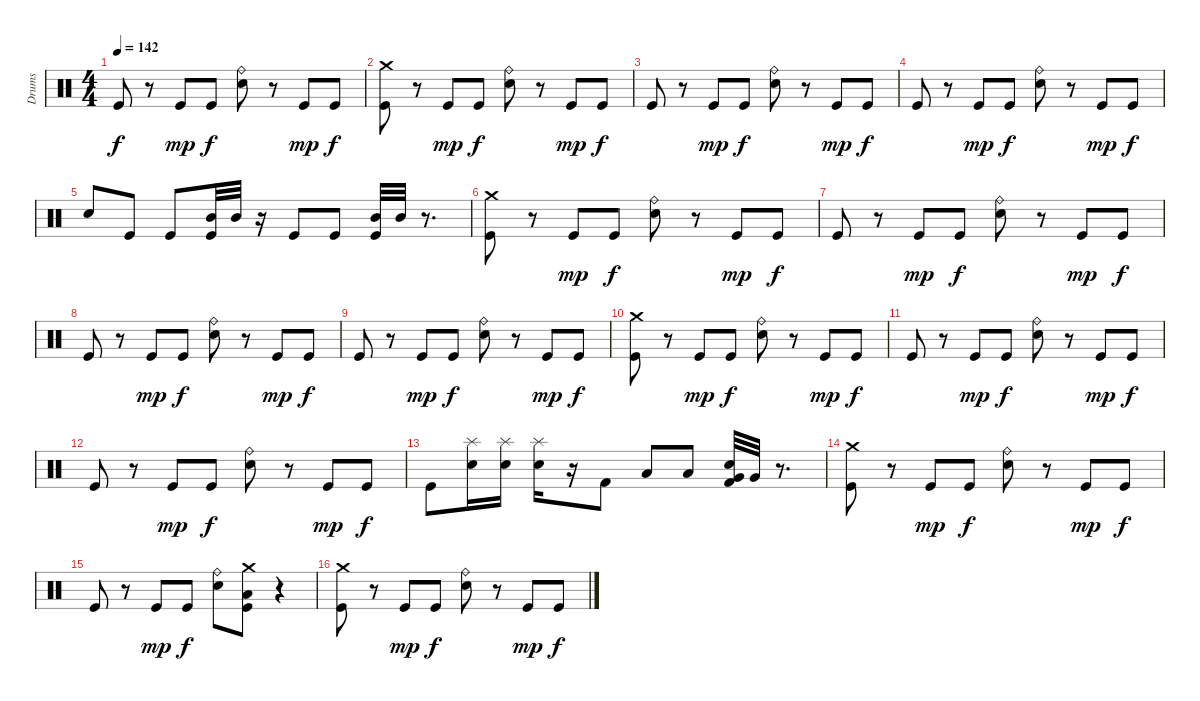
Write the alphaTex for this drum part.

\track ("Drums" "Drums") {instrument percussion}
\staff {score}
\articulation defaults
\ts (4 4)
\tempo 142
\clef neutral
\ks c "Kick (hit)".8{dy f}
r.8 "Kick (hit)".8{dy mp} "Kick (hit)".8{dy f} ("Ride (bell)" "Electric Snare (hit)").8 r.8 "Kick (hit)".8{dy mp} "Kick (hit)".8{dy f} |
("Crash medium (hit)" "Kick (hit)").8 r.8 "Kick (hit)".8{dy mp} "Kick (hit)".8{dy f} ("Ride (bell)" "Electric Snare (hit)").8 r.8 "Kick (hit)".8{dy mp} "Kick (hit)".8{dy f} |
"Kick (hit)".8 r.8 "Kick (hit)".8{dy mp} "Kick (hit)".8{dy f} ("Ride (bell)" "Electric Snare (hit)").8 r.8 "Kick (hit)".8{dy mp} "Kick (hit)".8{dy f} |
"Kick (hit)".8 r.8 "Kick (hit)".8{dy mp} "Kick (hit)".8{dy f} ("Ride (bell)" "Electric Snare (hit)").8 r.8 "Kick (hit)".8{dy mp} "Kick (hit)".8{dy f} |
"Electric Snare (hit)".8 "Kick (hit)".8 "Kick (hit)".8 ("Kick (hit)" "Mid Tom (hit)").32 "Mid Tom (hit)".32 r.16 "Kick (hit)".8 "Kick (hit)".8 ("Kick (hit)" "Mid Tom (hit)").32 "Mid Tom (hit)".32 r.8{d} |
("Crash medium (hit)" "Kick (hit)").8 r.8 "Kick (hit)".8{dy mp} "Kick (hit)".8{dy f} ("Ride (bell)" "Electric Snare (hit)").8 r.8 "Kick (hit)".8{dy mp} "Kick (hit)".8{dy f} |
"Kick (hit)".8 r.8 "Kick (hit)".8{dy mp} "Kick (hit)".8{dy f} ("Ride (bell)" "Electric Snare (hit)").8 r.8 "Kick (hit)".8{dy mp} "Kick (hit)".8{dy f} |
"Kick (hit)".8 r.8 "Kick (hit)".8{dy mp} "Kick (hit)".8{dy f} ("Ride (bell)" "Electric Snare (hit)").8 r.8 "Kick (hit)".8{dy mp} "Kick (hit)".8{dy f} |
"Kick (hit)".8 r.8 "Kick (hit)".8{dy mp} "Kick (hit)".8{dy f} ("Ride (bell)" "Electric Snare (hit)").8 r.8 "Kick (hit)".8{dy mp} "Kick (hit)".8{dy f} |
("Crash medium (hit)" "Kick (hit)").8 r.8 "Kick (hit)".8{dy mp} "Kick (hit)".8{dy f} ("Ride (bell)" "Electric Snare (hit)").8 r.8 "Kick (hit)".8{dy mp} "Kick (hit)".8{dy f} |
"Kick (hit)".8 r.8 "Kick (hit)".8{dy mp} "Kick (hit)".8{dy f} ("Ride (bell)" "Electric Snare (hit)").8 r.8 "Kick (hit)".8{dy mp} "Kick (hit)".8{dy f} |
"Kick (hit)".8 r.8 "Kick (hit)".8{dy mp} "Kick (hit)".8{dy f} ("Ride (bell)" "Electric Snare (hit)").8 r.8 "Kick (hit)".8{dy mp} "Kick (hit)".8{dy f} |
"Kick (hit)".8 ("Splash (hit)" "Electric Snare (hit)").16 ("Splash (hit)" "Electric Snare (hit)").16 ("Splash (hit)" "Electric Snare (hit)").16 r.16 "Kick (hit) 2".8 "Low Tom (hit)".8 "Low Tom (hit)".8 ("Electric Snare (hit)" "Kick (hit) 2" "Very Low Tom (hit)").32 "Very Low Tom (hit)".32 r.8{d} |
("Crash medium (hit)" "Kick (hit)").8 r.8 "Kick (hit)".8{dy mp} "Kick (hit)".8{dy f} ("Ride (bell)" "Electric Snare (hit)").8 r.8 "Kick (hit)".8{dy mp} "Kick (hit)".8{dy f} |
"Kick (hit)".8 r.8 "Kick (hit)".8{dy mp} "Kick (hit)".8{dy f} ("Ride (bell)" "Electric Snare (hit)").8 ("Crash medium (hit)" "Low Tom (hit)" "Kick (hit)").8 r.4 |
("Crash medium (hit)" "Kick (hit)").8 r.8 "Kick (hit)".8{dy mp} "Kick (hit)".8{dy f} ("Ride (bell)" "Electric Snare (hit)").8 r.8 "Kick (hit)".8{dy mp} "Kick (hit)".8{dy f}
